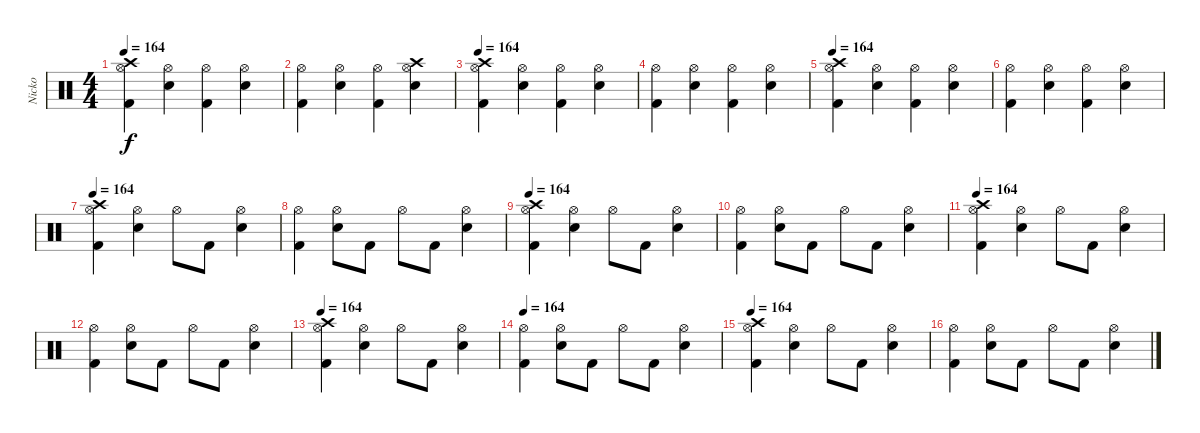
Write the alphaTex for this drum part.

\track ("Nicko" "Nicko") {instrument percussion}
\staff {score}
\articulation defaults
\ts (4 4)
\tempo 164
\clef neutral
\ks c
("Hi-Hat (open)" "Crash high (hit)" "Kick (hit) 2").4{dy f} ("Hi-Hat (open)" "Snare (hit) 2").4 ("Hi-Hat (open)" "Kick (hit) 2").4 ("Hi-Hat (open)" "Snare (hit) 2").4 |
("Hi-Hat (open)" "Kick (hit) 2").4 ("Hi-Hat (open)" "Snare (hit) 2").4 ("Hi-Hat (open)" "Kick (hit) 2").4 ("Hi-Hat (open)" "Snare (hit) 2" "Crash high (hit)").4 |
\tempo 164
("Hi-Hat (open)" "Crash high (hit)" "Kick (hit) 2").4 ("Hi-Hat (open)" "Snare (hit) 2").4 ("Hi-Hat (open)" "Kick (hit) 2").4 ("Hi-Hat (open)" "Snare (hit) 2").4 |
("Hi-Hat (open)" "Kick (hit) 2").4 ("Hi-Hat (open)" "Snare (hit) 2").4 ("Hi-Hat (open)" "Kick (hit) 2").4 ("Hi-Hat (open)" "Snare (hit) 2").4 |
\tempo 164
("Hi-Hat (open)" "Crash high (hit)" "Kick (hit) 2").4 ("Hi-Hat (open)" "Snare (hit) 2").4 ("Hi-Hat (open)" "Kick (hit) 2").4 ("Hi-Hat (open)" "Snare (hit) 2").4 |
("Hi-Hat (open)" "Kick (hit) 2").4 ("Hi-Hat (open)" "Snare (hit) 2").4 ("Hi-Hat (open)" "Kick (hit) 2").4 ("Hi-Hat (open)" "Snare (hit) 2").4 |
\tempo 164
("Hi-Hat (open)" "Crash high (hit)" "Kick (hit) 2").4 ("Hi-Hat (open)" "Snare (hit) 2").4 "Hi-Hat (open)".8 "Kick (hit) 2".8 ("Hi-Hat (open)" "Snare (hit) 2").4 |
("Hi-Hat (open)" "Kick (hit) 2").4 ("Hi-Hat (open)" "Snare (hit) 2").8 "Kick (hit) 2".8 "Hi-Hat (open)".8 "Kick (hit) 2".8 ("Hi-Hat (open)" "Snare (hit) 2").4 |
\tempo 164
("Hi-Hat (open)" "Crash high (hit)" "Kick (hit) 2").4 ("Hi-Hat (open)" "Snare (hit) 2").4 "Hi-Hat (open)".8 "Kick (hit) 2".8 ("Hi-Hat (open)" "Snare (hit) 2").4 |
("Hi-Hat (open)" "Kick (hit) 2").4 ("Hi-Hat (open)" "Snare (hit) 2").8 "Kick (hit) 2".8 "Hi-Hat (open)".8 "Kick (hit) 2".8 ("Hi-Hat (open)" "Snare (hit) 2").4 |
\tempo 164
("Hi-Hat (open)" "Crash high (hit)" "Kick (hit) 2").4 ("Hi-Hat (open)" "Snare (hit) 2").4 "Hi-Hat (open)".8 "Kick (hit) 2".8 ("Hi-Hat (open)" "Snare (hit) 2").4 |
("Hi-Hat (open)" "Kick (hit) 2").4 ("Hi-Hat (open)" "Snare (hit) 2").8 "Kick (hit) 2".8 "Hi-Hat (open)".8 "Kick (hit) 2".8 ("Hi-Hat (open)" "Snare (hit) 2").4 |
\tempo 164
("Hi-Hat (open)" "Crash high (hit)" "Kick (hit) 2").4 ("Hi-Hat (open)" "Snare (hit) 2").4 "Hi-Hat (open)".8 "Kick (hit) 2".8 ("Hi-Hat (open)" "Snare (hit) 2").4 |
\tempo 164
("Hi-Hat (open)" "Kick (hit) 2").4 ("Hi-Hat (open)" "Snare (hit) 2").8 "Kick (hit) 2".8 "Hi-Hat (open)".8 "Kick (hit) 2".8 ("Hi-Hat (open)" "Snare (hit) 2").4 |
\tempo 164
("Hi-Hat (open)" "Crash high (hit)" "Kick (hit) 2").4 ("Hi-Hat (open)" "Snare (hit) 2").4 "Hi-Hat (open)".8 "Kick (hit) 2".8 ("Hi-Hat (open)" "Snare (hit) 2").4 |
("Hi-Hat (open)" "Kick (hit) 2").4 ("Hi-Hat (open)" "Snare (hit) 2").8 "Kick (hit) 2".8 "Hi-Hat (open)".8 "Kick (hit) 2".8 ("Hi-Hat (open)" "Snare (hit) 2").4
